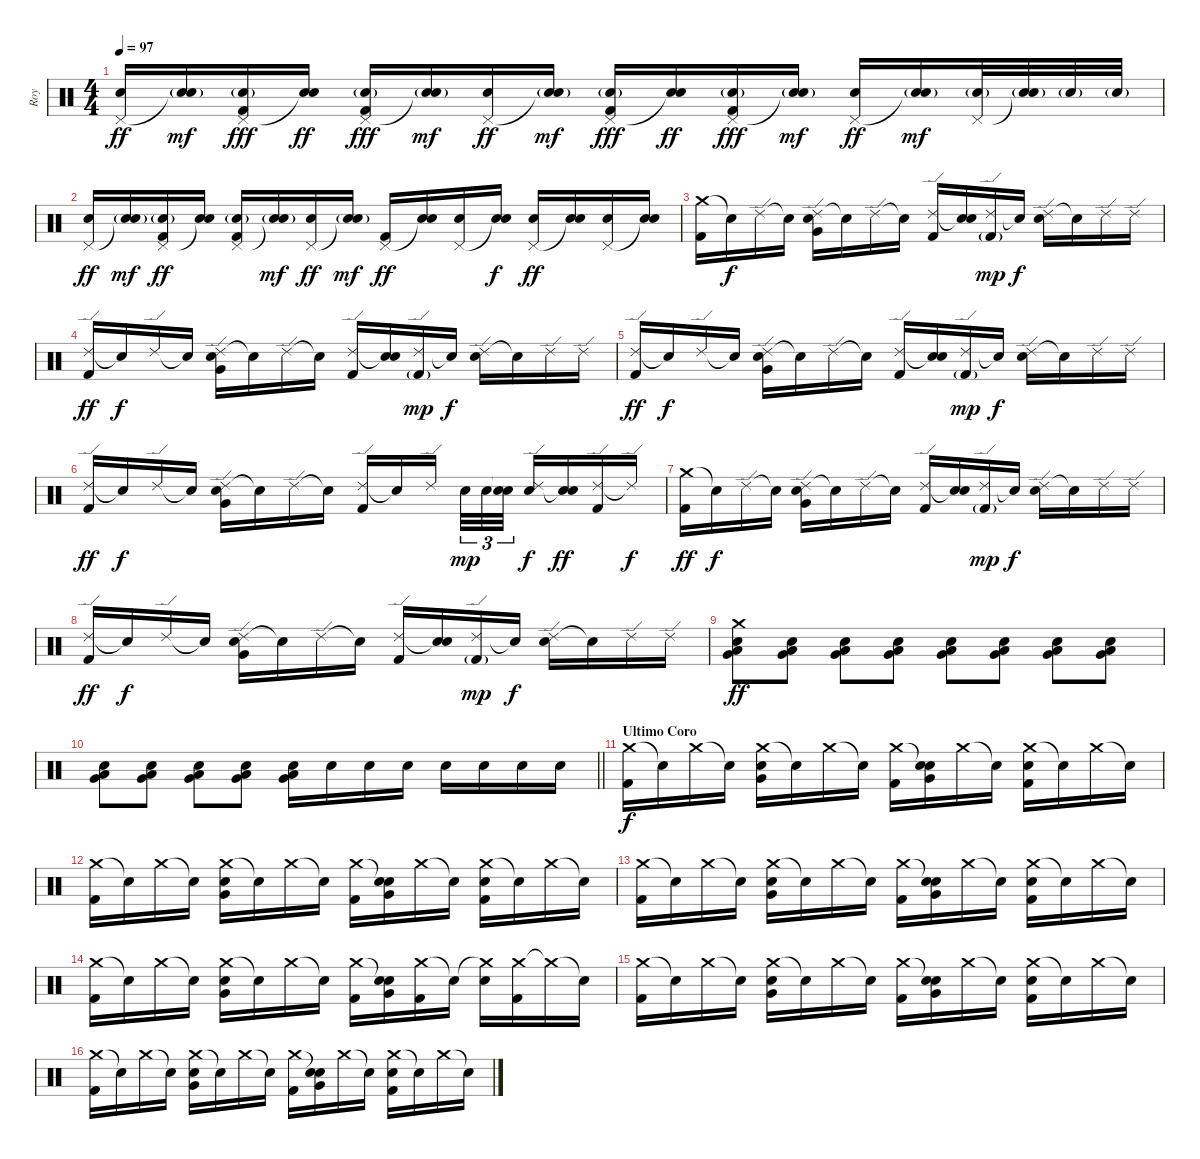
\track ("Roy" "Roy") {instrument percussion}
\staff {score}
\articulation defaults
\ts (4 4)
\tempo 97
\clef neutral
\ks c
("Pedal Hi-Hat (hit)" "Electric Snare (hit)").16{dy ff} ("Snare (hit)"{t} "Electric Snare (hit)"{g}).16{dy mf} ("Pedal Hi-Hat (hit)" "Electric Snare (hit)"{g} "Kick (hit) 2").16{dy fff} ("Snare (hit)"{t} "Electric Snare (hit)").16{dy ff} ("Pedal Hi-Hat (hit)" "Electric Snare (hit)"{g} "Kick (hit) 2").16{dy fff} ("Snare (hit)"{t} "Electric Snare (hit)"{g}).16{dy mf} ("Pedal Hi-Hat (hit)" "Electric Snare (hit)").16{dy ff} ("Snare (hit)"{t} "Electric Snare (hit)"{g}).16{dy mf} ("Pedal Hi-Hat (hit)" "Electric Snare (hit)"{g} "Kick (hit) 2").16{dy fff} ("Snare (hit)"{t} "Electric Snare (hit)").16{dy ff} ("Pedal Hi-Hat (hit)" "Electric Snare (hit)"{g} "Kick (hit) 2").16{dy fff} ("Snare (hit)"{t} "Electric Snare (hit)"{g}).16{dy mf} ("Pedal Hi-Hat (hit)" "Electric Snare (hit)").16{dy ff} ("Snare (hit)"{t} "Electric Snare (hit)"{g}).16{dy mf} ("Pedal Hi-Hat (hit)" "Electric Snare (hit)"{g}).32 ("Snare (hit)"{t} "Electric Snare (hit)"{g}).32 "Electric Snare (hit)"{g}.32 "Electric Snare (hit)"{g}.32 |
("Pedal Hi-Hat (hit)" "Electric Snare (hit)").16{dy ff} ("Snare (hit)"{t} "Electric Snare (hit)"{g}).16{dy mf} ("Pedal Hi-Hat (hit)" "Electric Snare (hit)"{g} "Kick (hit) 2").16{dy ff} ("Snare (hit)"{t} "Electric Snare (hit)").16 ("Pedal Hi-Hat (hit)" "Electric Snare (hit)"{g} "Kick (hit) 2").16 ("Snare (hit)"{t} "Electric Snare (hit)"{g}).16{dy mf} ("Pedal Hi-Hat (hit)" "Electric Snare (hit)").16{dy ff} ("Snare (hit)"{t} "Electric Snare (hit)"{g}).16{dy mf} ("Pedal Hi-Hat (hit)" "Kick (hit) 2").16{dy ff} ("Snare (hit)"{t} "Electric Snare (hit)").16 ("Pedal Hi-Hat (hit)" "Electric Snare (hit)").16 ("Snare (hit)"{t} "Electric Snare (hit)").16{dy f} ("Pedal Hi-Hat (hit)" "Electric Snare (hit)").16{dy ff} ("Snare (hit)"{t} "Electric Snare (hit)").16 ("Pedal Hi-Hat (hit)" "Electric Snare (hit)").16 ("Snare (hit)"{t} "Electric Snare (hit)").16 |
("Crash medium (hit)" "Kick (hit) 2").16 "Snare (hit)"{t}.16{dy f} "Ride (edge) 2".16 "Snare (hit)"{t}.16 ("Ride (edge) 2" "Electric Snare (hit)" "Very Low Tom (hit)").16 "Snare (hit)"{t}.16 "Ride (edge) 2".16 "Snare (hit)"{t}.16 ("Ride (edge) 2" "Kick (hit) 2").16 ("Snare (hit)"{t} "Electric Snare (hit)").16 ("Ride (edge) 2" "Kick (hit) 2"{g}).16{dy mp} "Snare (hit)"{t}.16{dy f} ("Ride (edge) 2" "Electric Snare (hit)").16 "Snare (hit)"{t}.16 "Ride (edge) 2".16 "Ride (edge) 2".16 |
("Ride (edge) 2" "Kick (hit) 2").16{dy ff} "Snare (hit)"{t}.16{dy f} "Ride (edge) 2".16 "Snare (hit)"{t}.16 ("Ride (edge) 2" "Electric Snare (hit)" "Very Low Tom (hit)").16 "Snare (hit)"{t}.16 "Ride (edge) 2".16 "Snare (hit)"{t}.16 ("Ride (edge) 2" "Kick (hit) 2").16 ("Snare (hit)"{t} "Electric Snare (hit)").16 ("Ride (edge) 2" "Kick (hit) 2"{g}).16{dy mp} "Snare (hit)"{t}.16{dy f} ("Ride (edge) 2" "Electric Snare (hit)").16 "Snare (hit)"{t}.16 "Ride (edge) 2".16 "Ride (edge) 2".16 |
("Ride (edge) 2" "Kick (hit) 2").16{dy ff} "Snare (hit)"{t}.16{dy f} "Ride (edge) 2".16 "Snare (hit)"{t}.16 ("Ride (edge) 2" "Electric Snare (hit)" "Very Low Tom (hit)").16 "Snare (hit)"{t}.16 "Ride (edge) 2".16 "Snare (hit)"{t}.16 ("Ride (edge) 2" "Kick (hit) 2").16 ("Snare (hit)"{t} "Electric Snare (hit)").16 ("Ride (edge) 2" "Kick (hit) 2"{g}).16{dy mp} "Snare (hit)"{t}.16{dy f} ("Ride (edge) 2" "Electric Snare (hit)").16 "Snare (hit)"{t}.16 "Ride (edge) 2".16 "Ride (edge) 2".16 |
("Ride (edge) 2" "Kick (hit) 2").16{dy ff} "Snare (hit)"{t}.16{dy f} "Ride (edge) 2".16 "Snare (hit)"{t}.16 ("Ride (edge) 2" "Electric Snare (hit)" "Very Low Tom (hit)").16 "Snare (hit)"{t}.16 "Ride (edge) 2".16 "Snare (hit)"{t}.16 ("Ride (edge) 2" "Kick (hit) 2").16 "Snare (hit)"{t}.16 "Ride (edge) 2".16{beam splitsecondary} "Electric Snare (hit)".32{tu (3 2) dy mp} "Electric Snare (hit)".32{tu (3 2)} ("Snare (hit)"{t} "Electric Snare (hit)").32{tu (3 2)} ("Ride (edge) 2" "Electric Snare (hit)").16{dy f} ("Snare (hit)"{t} "Electric Snare (hit)").16{dy ff} ("Ride (edge) 2" "Kick (hit) 2").16 "Ride (edge) 2"{t}.16{dy f} |
("Crash medium (hit)" "Kick (hit) 2").16{dy ff} "Snare (hit)"{t}.16{dy f} "Ride (edge) 2".16 "Snare (hit)"{t}.16 ("Ride (edge) 2" "Electric Snare (hit)" "Very Low Tom (hit)").16 "Snare (hit)"{t}.16 "Ride (edge) 2".16 "Snare (hit)"{t}.16 ("Ride (edge) 2" "Kick (hit) 2").16 ("Snare (hit)"{t} "Electric Snare (hit)").16 ("Ride (edge) 2" "Kick (hit) 2"{g}).16{dy mp} "Snare (hit)"{t}.16{dy f} ("Ride (edge) 2" "Electric Snare (hit)").16 "Snare (hit)"{t}.16 "Ride (edge) 2".16 "Ride (edge) 2".16 |
("Ride (edge) 2" "Kick (hit) 2").16{dy ff} "Snare (hit)"{t}.16{dy f} "Ride (edge) 2".16 "Snare (hit)"{t}.16 ("Ride (edge) 2" "Electric Snare (hit)" "Very Low Tom (hit)").16 "Snare (hit)"{t}.16 "Ride (edge) 2".16 "Snare (hit)"{t}.16 ("Ride (edge) 2" "Kick (hit) 2").16 ("Snare (hit)"{t} "Electric Snare (hit)").16 ("Ride (edge) 2" "Kick (hit) 2"{g}).16{dy mp} "Snare (hit)"{t}.16{dy f} ("Ride (edge) 2" "Electric Snare (hit)").16 "Snare (hit)"{t}.16 "Ride (edge) 2".16 "Ride (edge) 2".16 |
("Crash medium (hit)" "Low Tom (hit)" "Very Low Tom (hit)" "Electric Snare (hit)").8{dy ff} ("Low Tom (hit)" "Very Low Tom (hit)" "Electric Snare (hit)").8 ("Low Tom (hit)" "Very Low Tom (hit)" "Electric Snare (hit)").8 ("Low Tom (hit)" "Very Low Tom (hit)" "Electric Snare (hit)").8 ("Low Tom (hit)" "Very Low Tom (hit)" "Electric Snare (hit)").8 ("Low Tom (hit)" "Very Low Tom (hit)" "Electric Snare (hit)").8 ("Low Tom (hit)" "Very Low Tom (hit)" "Electric Snare (hit)").8 ("Low Tom (hit)" "Very Low Tom (hit)" "Electric Snare (hit)").8 |
\barLineRight lightlight
("Low Tom (hit)" "Very Low Tom (hit)" "Electric Snare (hit)").8 ("Low Tom (hit)" "Very Low Tom (hit)" "Electric Snare (hit)").8 ("Low Tom (hit)" "Very Low Tom (hit)" "Electric Snare (hit)").8 ("Low Tom (hit)" "Very Low Tom (hit)" "Electric Snare (hit)").8 ("Low Tom (hit)" "Very Low Tom (hit)" "Electric Snare (hit)").16 "Electric Snare (hit)".16 "Electric Snare (hit)".16 "Electric Snare (hit)".16 "Electric Snare (hit)".16 "Electric Snare (hit)".16 "Electric Snare (hit)".16 "Electric Snare (hit)".16 |
\section ("" "Ultimo Coro")
("Crash medium (hit)" "Kick (hit) 2").16{dy f} "Snare (hit)"{t}.16 "Crash medium (hit)".16 "Snare (hit)"{t}.16 ("Crash medium (hit)" "Electric Snare (hit)" "Very Low Tom (hit)").16 "Snare (hit)"{t}.16 "Crash medium (hit)".16 "Snare (hit)"{t}.16 ("Crash medium (hit)" "Kick (hit) 2").16 ("Snare (hit)"{t} "Electric Snare (hit)" "Very Low Tom (hit)").16 "Crash medium (hit)".16 "Snare (hit)"{t}.16 ("Crash medium (hit)" "Electric Snare (hit)" "Kick (hit) 2").16 "Snare (hit)"{t}.16 "Crash medium (hit)".16 "Snare (hit)"{t}.16 |
("Crash medium (hit)" "Kick (hit) 2").16 "Snare (hit)"{t}.16 "Crash medium (hit)".16 "Snare (hit)"{t}.16 ("Crash medium (hit)" "Electric Snare (hit)" "Very Low Tom (hit)").16 "Snare (hit)"{t}.16 "Crash medium (hit)".16 "Snare (hit)"{t}.16 ("Crash medium (hit)" "Kick (hit) 2").16 ("Snare (hit)"{t} "Electric Snare (hit)" "Very Low Tom (hit)").16 "Crash medium (hit)".16 "Snare (hit)"{t}.16 ("Crash medium (hit)" "Electric Snare (hit)" "Kick (hit) 2").16 "Snare (hit)"{t}.16 "Crash medium (hit)".16 "Snare (hit)"{t}.16 |
("Crash medium (hit)" "Kick (hit) 2").16 "Snare (hit)"{t}.16 "Crash medium (hit)".16 "Snare (hit)"{t}.16 ("Crash medium (hit)" "Electric Snare (hit)" "Very Low Tom (hit)").16 "Snare (hit)"{t}.16 "Crash medium (hit)".16 "Snare (hit)"{t}.16 ("Crash medium (hit)" "Kick (hit) 2").16 ("Snare (hit)"{t} "Electric Snare (hit)" "Very Low Tom (hit)").16 "Crash medium (hit)".16 "Snare (hit)"{t}.16 ("Crash medium (hit)" "Electric Snare (hit)" "Kick (hit) 2").16 "Snare (hit)"{t}.16 "Crash medium (hit)".16 "Snare (hit)"{t}.16 |
("Crash medium (hit)" "Kick (hit) 2").16 "Snare (hit)"{t}.16 "Crash medium (hit)".16 "Snare (hit)"{t}.16 ("Crash medium (hit)" "Electric Snare (hit)" "Very Low Tom (hit)").16 "Snare (hit)"{t}.16 "Crash medium (hit)".16 "Snare (hit)"{t}.16 ("Crash medium (hit)" "Kick (hit) 2").16 ("Snare (hit)"{t} "Electric Snare (hit)" "Very Low Tom (hit)").16 ("Crash medium (hit)" "Kick (hit) 2").16 "Snare (hit)"{t}.16 ("Crash medium (hit)"{t} "Electric Snare (hit)").16 ("Crash medium (hit)" "Kick (hit) 2").16 "Crash medium (hit)"{t}.16 "Snare (hit)"{t}.16 |
("Crash medium (hit)" "Kick (hit) 2").16 "Snare (hit)"{t}.16 "Crash medium (hit)".16 "Snare (hit)"{t}.16 ("Crash medium (hit)" "Electric Snare (hit)" "Very Low Tom (hit)").16 "Snare (hit)"{t}.16 "Crash medium (hit)".16 "Snare (hit)"{t}.16 ("Crash medium (hit)" "Kick (hit) 2").16 ("Snare (hit)"{t} "Electric Snare (hit)" "Very Low Tom (hit)").16 "Crash medium (hit)".16 "Snare (hit)"{t}.16 ("Crash medium (hit)" "Electric Snare (hit)" "Kick (hit) 2").16 "Snare (hit)"{t}.16 "Crash medium (hit)".16 "Snare (hit)"{t}.16 |
("Crash medium (hit)" "Kick (hit) 2").16 "Snare (hit)"{t}.16 "Crash medium (hit)".16 "Snare (hit)"{t}.16 ("Crash medium (hit)" "Electric Snare (hit)" "Very Low Tom (hit)").16 "Snare (hit)"{t}.16 "Crash medium (hit)".16 "Snare (hit)"{t}.16 ("Crash medium (hit)" "Kick (hit) 2").16 ("Snare (hit)"{t} "Electric Snare (hit)" "Very Low Tom (hit)").16 "Crash medium (hit)".16 "Snare (hit)"{t}.16 ("Crash medium (hit)" "Electric Snare (hit)" "Kick (hit) 2").16 "Snare (hit)"{t}.16 "Crash medium (hit)".16 "Snare (hit)"{t}.16
